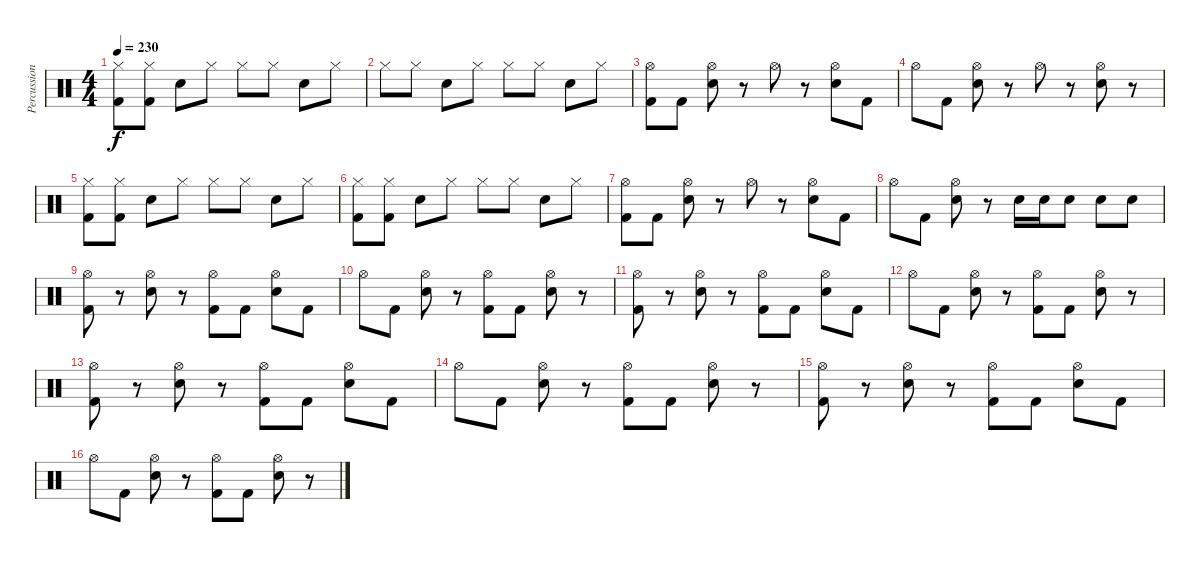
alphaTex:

\track ("Percussion" "Percussion") {instrument percussion}
\staff {score}
\articulation defaults
\ts (4 4)
\tempo 230
\clef neutral
\ks c
("Hi-Hat (closed)" "Kick (hit) 2").8{dy f} ("Hi-Hat (closed)" "Kick (hit) 2").8 "Electric Snare (hit)".8 "Hi-Hat (closed)".8 "Hi-Hat (closed)".8 "Hi-Hat (closed)".8 "Electric Snare (hit)".8 "Hi-Hat (closed)".8 |
"Hi-Hat (closed)".8 "Hi-Hat (closed)".8 "Electric Snare (hit)".8 "Hi-Hat (closed)".8 "Hi-Hat (closed)".8 "Hi-Hat (closed)".8 "Electric Snare (hit)".8 "Hi-Hat (closed)".8 |
("Hi-Hat (open)" "Kick (hit) 2").8 "Kick (hit) 2".8 ("Hi-Hat (open)" "Electric Snare (hit)").8 r.8 "Hi-Hat (open)".8 r.8 ("Hi-Hat (open)" "Electric Snare (hit)").8 "Kick (hit) 2".8 |
"Hi-Hat (open)".8 "Kick (hit) 2".8 ("Hi-Hat (open)" "Electric Snare (hit)").8 r.8 "Hi-Hat (open)".8 r.8 ("Hi-Hat (open)" "Electric Snare (hit)").8 r.8 |
("Hi-Hat (closed)" "Kick (hit) 2").8 ("Hi-Hat (closed)" "Kick (hit) 2").8 "Electric Snare (hit)".8 "Hi-Hat (closed)".8 "Hi-Hat (closed)".8 "Hi-Hat (closed)".8 "Electric Snare (hit)".8 "Hi-Hat (closed)".8 |
("Hi-Hat (closed)" "Kick (hit) 2").8 ("Hi-Hat (closed)" "Kick (hit) 2").8 "Electric Snare (hit)".8 "Hi-Hat (closed)".8 "Hi-Hat (closed)".8 "Hi-Hat (closed)".8 "Electric Snare (hit)".8 "Hi-Hat (closed)".8 |
("Hi-Hat (open)" "Kick (hit) 2").8 "Kick (hit) 2".8 ("Hi-Hat (open)" "Electric Snare (hit)").8 r.8 "Hi-Hat (open)".8 r.8 ("Hi-Hat (open)" "Electric Snare (hit)").8 "Kick (hit) 2".8 |
"Hi-Hat (open)".8 "Kick (hit) 2".8 ("Hi-Hat (open)" "Electric Snare (hit)").8 r.8 "Electric Snare (hit)".16 "Electric Snare (hit)".16 "Electric Snare (hit)".8 "Electric Snare (hit)".8 "Electric Snare (hit)".8 |
("Hi-Hat (open)" "Kick (hit) 2").8 r.8 ("Hi-Hat (open)" "Electric Snare (hit)").8 r.8 ("Hi-Hat (open)" "Kick (hit) 2").8 "Kick (hit) 2".8 ("Hi-Hat (open)" "Electric Snare (hit)").8 "Kick (hit) 2".8 |
"Hi-Hat (open)".8 "Kick (hit) 2".8 ("Hi-Hat (open)" "Electric Snare (hit)").8 r.8 ("Hi-Hat (open)" "Kick (hit) 2").8 "Kick (hit) 2".8 ("Hi-Hat (open)" "Electric Snare (hit)").8 r.8 |
("Hi-Hat (open)" "Kick (hit) 2").8 r.8 ("Hi-Hat (open)" "Electric Snare (hit)").8 r.8 ("Hi-Hat (open)" "Kick (hit) 2").8 "Kick (hit) 2".8 ("Hi-Hat (open)" "Electric Snare (hit)").8 "Kick (hit) 2".8 |
"Hi-Hat (open)".8 "Kick (hit) 2".8 ("Hi-Hat (open)" "Electric Snare (hit)").8 r.8 ("Hi-Hat (open)" "Kick (hit) 2").8 "Kick (hit) 2".8 ("Hi-Hat (open)" "Electric Snare (hit)").8 r.8 |
("Hi-Hat (open)" "Kick (hit) 2").8 r.8 ("Hi-Hat (open)" "Electric Snare (hit)").8 r.8 ("Hi-Hat (open)" "Kick (hit) 2").8 "Kick (hit) 2".8 ("Hi-Hat (open)" "Electric Snare (hit)").8 "Kick (hit) 2".8 |
"Hi-Hat (open)".8 "Kick (hit) 2".8 ("Hi-Hat (open)" "Electric Snare (hit)").8 r.8 ("Hi-Hat (open)" "Kick (hit) 2").8 "Kick (hit) 2".8 ("Hi-Hat (open)" "Electric Snare (hit)").8 r.8 |
("Hi-Hat (open)" "Kick (hit) 2").8 r.8 ("Hi-Hat (open)" "Electric Snare (hit)").8 r.8 ("Hi-Hat (open)" "Kick (hit) 2").8 "Kick (hit) 2".8 ("Hi-Hat (open)" "Electric Snare (hit)").8 "Kick (hit) 2".8 |
"Hi-Hat (open)".8 "Kick (hit) 2".8 ("Hi-Hat (open)" "Electric Snare (hit)").8 r.8 ("Hi-Hat (open)" "Kick (hit) 2").8 "Kick (hit) 2".8 ("Hi-Hat (open)" "Electric Snare (hit)").8 r.8
